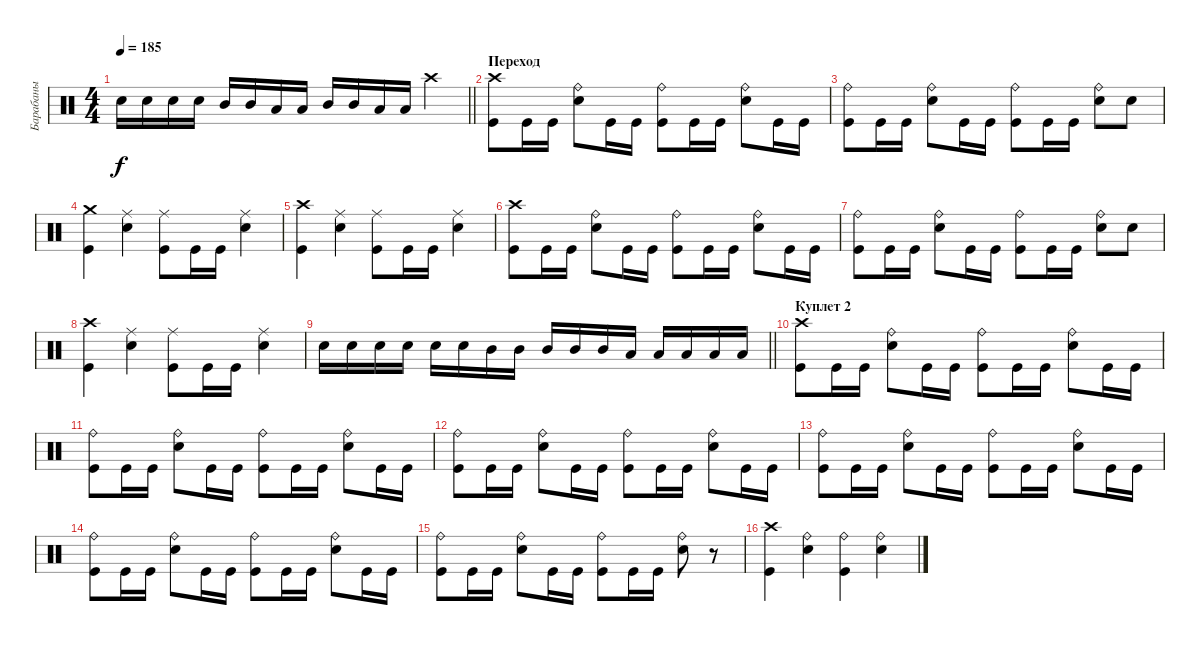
\track ("Барабаны" "Барабаны") {instrument percussion}
\staff {score}
\articulation defaults
\ts (4 4)
\tempo 185
\clef neutral
\barLineRight lightlight
\ks c "Snare (hit) 2".16{dy f} "Snare (hit) 2".16 "Snare (hit) 2".16 "Snare (hit) 2".16 "Mid Tom (hit)".16 "Mid Tom (hit)".16 "Low Tom (hit)".16 "Low Tom (hit)".16 "Mid Tom (hit)".16 "Mid Tom (hit)".16 "Low Tom (hit)".16 "Low Tom (hit)".16 "Crash high (hit)".4
|
\section ("" "Переход")
("Kick (hit)" "Crash high (hit)").8 "Kick (hit)".16 "Kick (hit)".16 ("Snare (hit) 2" "Ride (bell)").8 "Kick (hit)".16 "Kick (hit)".16 ("Kick (hit)" "Ride (bell)").8 "Kick (hit)".16 "Kick (hit)".16 ("Snare (hit) 2" "Ride (bell)").8 "Kick (hit)".16 "Kick (hit)".16 |
("Kick (hit)" "Ride (bell)").8 "Kick (hit)".16 "Kick (hit)".16 ("Snare (hit) 2" "Ride (bell)").8 "Kick (hit)".16 "Kick (hit)".16 ("Kick (hit)" "Ride (bell)").8 "Kick (hit)".16 "Kick (hit)".16 ("Snare (hit) 2" "Ride (bell)").8 "Snare (hit) 2".8 |
("Kick (hit)" "Crash medium (hit)").4 ("Snare (hit) 2" "Ride (middle)").4 ("Kick (hit)" "Ride (middle)").8 "Kick (hit)".16 "Kick (hit)".16 ("Snare (hit) 2" "Ride (middle)").4 |
("Kick (hit)" "Crash high (hit)").4 ("Snare (hit) 2" "Ride (middle)").4 ("Kick (hit)" "Ride (middle)").8 "Kick (hit)".16 "Kick (hit)".16 ("Snare (hit) 2" "Ride (middle)").4 |
("Kick (hit)" "Crash high (hit)").8 "Kick (hit)".16 "Kick (hit)".16 ("Snare (hit) 2" "Ride (bell)").8 "Kick (hit)".16 "Kick (hit)".16 ("Kick (hit)" "Ride (bell)").8 "Kick (hit)".16 "Kick (hit)".16 ("Snare (hit) 2" "Ride (bell)").8 "Kick (hit)".16 "Kick (hit)".16 |
("Kick (hit)" "Ride (bell)").8 "Kick (hit)".16 "Kick (hit)".16 ("Snare (hit) 2" "Ride (bell)").8 "Kick (hit)".16 "Kick (hit)".16 ("Kick (hit)" "Ride (bell)").8 "Kick (hit)".16 "Kick (hit)".16 ("Snare (hit) 2" "Ride (bell)").8 "Snare (hit) 2".8 |
("Kick (hit)" "Crash high (hit)").4 ("Snare (hit) 2" "Ride (middle)").4 ("Kick (hit)" "Ride (middle)").8 "Kick (hit)".16 "Kick (hit)".16 ("Snare (hit) 2" "Ride (middle)").4 |
\barLineRight lightlight "Snare (hit) 2".16 "Snare (hit) 2".16 "Snare (hit) 2".16 "Snare (hit) 2".16 "Snare (hit) 2".16 "Snare (hit) 2".16 "Mid Tom (hit)".16 "Mid Tom (hit)".16 "Mid Tom (hit)".16 "Mid Tom (hit)".16 "Mid Tom (hit)".16 "Low Tom (hit)".16 "Low Tom (hit)".16 "Low Tom (hit)".16 "Low Tom (hit)".16 "Low Tom (hit)".16
|
\section ("" "Куплет 2")
("Kick (hit)" "Crash high (hit)").8 "Kick (hit)".16 "Kick (hit)".16 ("Snare (hit) 2" "Ride (bell)").8 "Kick (hit)".16 "Kick (hit)".16 ("Kick (hit)" "Ride (bell)").8 "Kick (hit)".16 "Kick (hit)".16 ("Snare (hit) 2" "Ride (bell)").8 "Kick (hit)".16 "Kick (hit)".16 |
("Kick (hit)" "Ride (bell)").8 "Kick (hit)".16 "Kick (hit)".16 ("Snare (hit) 2" "Ride (bell)").8 "Kick (hit)".16 "Kick (hit)".16 ("Kick (hit)" "Ride (bell)").8 "Kick (hit)".16 "Kick (hit)".16 ("Snare (hit) 2" "Ride (bell)").8 "Kick (hit)".16 "Kick (hit)".16 |
("Kick (hit)" "Ride (bell)").8 "Kick (hit)".16 "Kick (hit)".16 ("Snare (hit) 2" "Ride (bell)").8 "Kick (hit)".16 "Kick (hit)".16 ("Kick (hit)" "Ride (bell)").8 "Kick (hit)".16 "Kick (hit)".16 ("Snare (hit) 2" "Ride (bell)").8 "Kick (hit)".16 "Kick (hit)".16 |
("Kick (hit)" "Ride (bell)").8 "Kick (hit)".16 "Kick (hit)".16 ("Snare (hit) 2" "Ride (bell)").8 "Kick (hit)".16 "Kick (hit)".16 ("Kick (hit)" "Ride (bell)").8 "Kick (hit)".16 "Kick (hit)".16 ("Snare (hit) 2" "Ride (bell)").8 "Kick (hit)".16 "Kick (hit)".16 |
("Kick (hit)" "Ride (bell)").8 "Kick (hit)".16 "Kick (hit)".16 ("Snare (hit) 2" "Ride (bell)").8 "Kick (hit)".16 "Kick (hit)".16 ("Kick (hit)" "Ride (bell)").8 "Kick (hit)".16 "Kick (hit)".16 ("Snare (hit) 2" "Ride (bell)").8 "Kick (hit)".16 "Kick (hit)".16 |
("Kick (hit)" "Ride (bell)").8 "Kick (hit)".16 "Kick (hit)".16 ("Snare (hit) 2" "Ride (bell)").8 "Kick (hit)".16 "Kick (hit)".16 ("Kick (hit)" "Ride (bell)").8 "Kick (hit)".16 "Kick (hit)".16 ("Snare (hit) 2" "Ride (bell)").8 r.8 |
("Kick (hit)" "Crash high (hit)").4 ("Snare (hit) 2" "Ride (bell)").4 ("Kick (hit)" "Ride (bell)").4 ("Snare (hit) 2" "Ride (bell)").4
